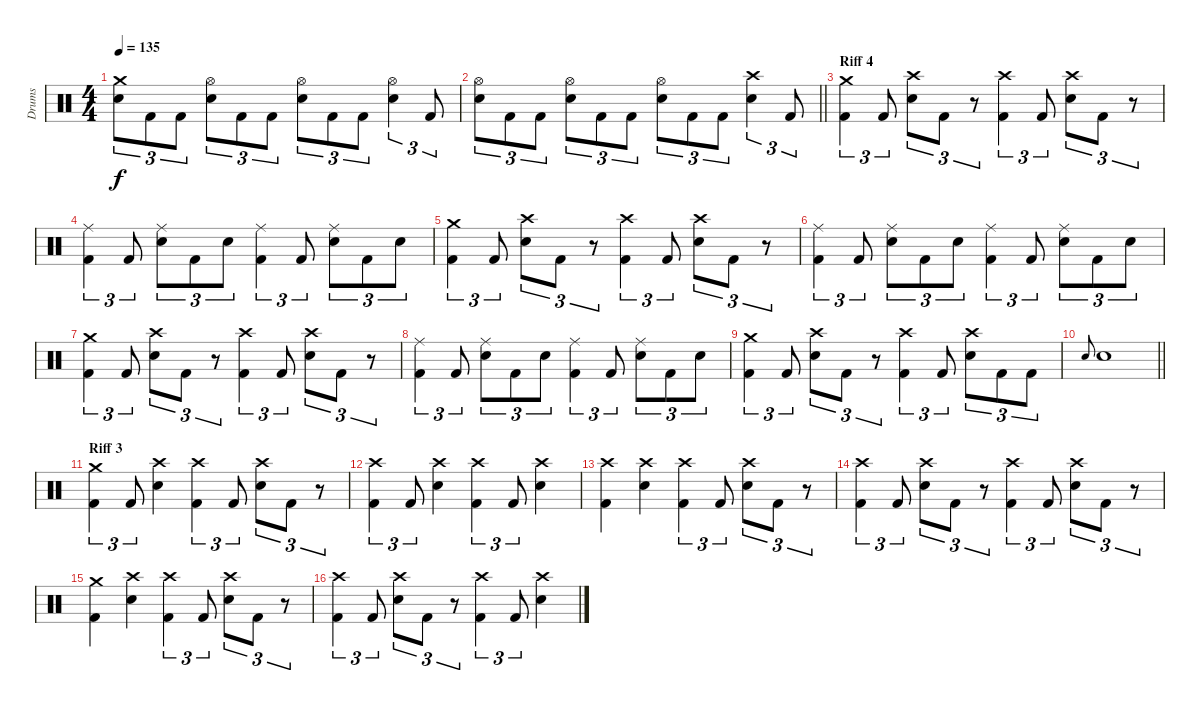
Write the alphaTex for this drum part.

\track ("Drums" "Drums") {instrument percussion}
\staff {score}
\articulation defaults
\ts (4 4)
\tempo 135
\clef neutral
\ks c
("Crash medium (hit)" "Electric Snare (hit)").8{tu (3 2) dy f} "Kick (hit) 2".8{tu (3 2)} "Kick (hit) 2".8{tu (3 2)} ("Hi-Hat (open)" "Electric Snare (hit)").8{tu (3 2)} "Kick (hit) 2".8{tu (3 2)} "Kick (hit) 2".8{tu (3 2)} ("Hi-Hat (open)" "Electric Snare (hit)").8{tu (3 2)} "Kick (hit) 2".8{tu (3 2)} "Kick (hit) 2".8{tu (3 2)} ("Electric Snare (hit)" "Hi-Hat (open)").4{tu (3 2)} "Kick (hit) 2".8{tu (3 2)} |
\barLineRight lightlight
("Hi-Hat (open)" "Electric Snare (hit)").8{tu (3 2)} "Kick (hit) 2".8{tu (3 2)} "Kick (hit) 2".8{tu (3 2)} ("Hi-Hat (open)" "Electric Snare (hit)").8{tu (3 2)} "Kick (hit) 2".8{tu (3 2)} "Kick (hit) 2".8{tu (3 2)} ("Hi-Hat (open)" "Electric Snare (hit)").8{tu (3 2)} "Kick (hit) 2".8{tu (3 2)} "Kick (hit) 2".8{tu (3 2)} ("Electric Snare (hit)" "Crash high (hit)").4{tu (3 2)} "Kick (hit) 2".8{tu (3 2)} |
\section ("" "Riff 4")
("Crash medium (hit)" "Kick (hit) 2").4{tu (3 2)} "Kick (hit) 2".8{tu (3 2)} ("Electric Snare (hit)" "Crash high (hit)").8{tu (3 2)} "Kick (hit) 2".8{tu (3 2)} r.8{tu (3 2)} ("Crash high (hit)" "Kick (hit) 2").4{tu (3 2)} "Kick (hit) 2".8{tu (3 2)} ("Electric Snare (hit)" "Crash high (hit)").8{tu (3 2)} "Kick (hit) 2".8{tu (3 2)} r.8{tu (3 2)} |
("Ride (middle)" "Kick (hit) 2").4{tu (3 2)} "Kick (hit) 2".8{tu (3 2)} ("Electric Snare (hit)" "Ride (middle)").8{tu (3 2)} "Kick (hit) 2".8{tu (3 2)} "Electric Snare (hit)".8{tu (3 2)} ("Ride (middle)" "Kick (hit) 2").4{tu (3 2)} "Kick (hit) 2".8{tu (3 2)} ("Electric Snare (hit)" "Ride (middle)").8{tu (3 2)} "Kick (hit) 2".8{tu (3 2)} "Electric Snare (hit)".8{tu (3 2)} |
("Crash medium (hit)" "Kick (hit) 2").4{tu (3 2)} "Kick (hit) 2".8{tu (3 2)} ("Electric Snare (hit)" "Crash high (hit)").8{tu (3 2)} "Kick (hit) 2".8{tu (3 2)} r.8{tu (3 2)} ("Crash high (hit)" "Kick (hit) 2").4{tu (3 2)} "Kick (hit) 2".8{tu (3 2)} ("Electric Snare (hit)" "Crash high (hit)").8{tu (3 2)} "Kick (hit) 2".8{tu (3 2)} r.8{tu (3 2)} |
("Ride (middle)" "Kick (hit) 2").4{tu (3 2)} "Kick (hit) 2".8{tu (3 2)} ("Electric Snare (hit)" "Ride (middle)").8{tu (3 2)} "Kick (hit) 2".8{tu (3 2)} "Electric Snare (hit)".8{tu (3 2)} ("Ride (middle)" "Kick (hit) 2").4{tu (3 2)} "Kick (hit) 2".8{tu (3 2)} ("Electric Snare (hit)" "Ride (middle)").8{tu (3 2)} "Kick (hit) 2".8{tu (3 2)} "Electric Snare (hit)".8{tu (3 2)} |
("Crash medium (hit)" "Kick (hit) 2").4{tu (3 2)} "Kick (hit) 2".8{tu (3 2)} ("Electric Snare (hit)" "Crash high (hit)").8{tu (3 2)} "Kick (hit) 2".8{tu (3 2)} r.8{tu (3 2)} ("Crash high (hit)" "Kick (hit) 2").4{tu (3 2)} "Kick (hit) 2".8{tu (3 2)} ("Electric Snare (hit)" "Crash high (hit)").8{tu (3 2)} "Kick (hit) 2".8{tu (3 2)} r.8{tu (3 2)} |
("Ride (middle)" "Kick (hit) 2").4{tu (3 2)} "Kick (hit) 2".8{tu (3 2)} ("Electric Snare (hit)" "Ride (middle)").8{tu (3 2)} "Kick (hit) 2".8{tu (3 2)} "Electric Snare (hit)".8{tu (3 2)} ("Ride (middle)" "Kick (hit) 2").4{tu (3 2)} "Kick (hit) 2".8{tu (3 2)} ("Electric Snare (hit)" "Ride (middle)").8{tu (3 2)} "Kick (hit) 2".8{tu (3 2)} "Electric Snare (hit)".8{tu (3 2)} |
("Crash medium (hit)" "Kick (hit) 2").4{tu (3 2)} "Kick (hit) 2".8{tu (3 2)} ("Electric Snare (hit)" "Crash high (hit)").8{tu (3 2)} "Kick (hit) 2".8{tu (3 2)} r.8{tu (3 2)} ("Crash high (hit)" "Kick (hit) 2").4{tu (3 2)} "Kick (hit) 2".8{tu (3 2)} ("Electric Snare (hit)" "Crash high (hit)").8{tu (3 2)} "Kick (hit) 2".8{tu (3 2)} "Kick (hit) 2".8{tu (3 2)} |
\barLineRight lightlight "Electric Snare (hit)".8{gr onbeat} "Electric Snare (hit)".1
|
\section ("" "Riff 3")
("Crash medium (hit)" "Kick (hit) 2").4{tu (3 2)} "Kick (hit) 2".8{tu (3 2)} ("Crash high (hit)" "Electric Snare (hit)").4 ("Crash high (hit)" "Kick (hit) 2").4{tu (3 2)} "Kick (hit) 2".8{tu (3 2)} ("Crash high (hit)" "Electric Snare (hit)").8{tu (3 2)} "Kick (hit) 2".8{tu (3 2)} r.8{tu (3 2)} |
("Crash high (hit)" "Kick (hit) 2").4{tu (3 2)} "Kick (hit) 2".8{tu (3 2)} ("Crash high (hit)" "Electric Snare (hit)").4 ("Crash high (hit)" "Kick (hit) 2").4{tu (3 2)} "Kick (hit) 2".8{tu (3 2)} ("Crash high (hit)" "Electric Snare (hit)").4 |
("Kick (hit) 2" "Crash high (hit)").4 ("Electric Snare (hit)" "Crash high (hit)").4 ("Crash high (hit)" "Kick (hit) 2").4{tu (3 2)} "Kick (hit) 2".8{tu (3 2)} ("Crash high (hit)" "Electric Snare (hit)").8{tu (3 2)} "Kick (hit) 2".8{tu (3 2)} r.8{tu (3 2)} |
("Crash high (hit)" "Kick (hit) 2").4{tu (3 2)} "Kick (hit) 2".8{tu (3 2)} ("Crash high (hit)" "Electric Snare (hit)").8{tu (3 2)} "Kick (hit) 2".8{tu (3 2)} r.8{tu (3 2)} ("Crash high (hit)" "Kick (hit) 2").4{tu (3 2)} "Kick (hit) 2".8{tu (3 2)} ("Crash high (hit)" "Electric Snare (hit)").8{tu (3 2)} "Kick (hit) 2".8{tu (3 2)} r.8{tu (3 2)} |
("Kick (hit) 2" "Crash medium (hit)").4 ("Electric Snare (hit)" "Crash high (hit)").4 ("Crash high (hit)" "Kick (hit) 2").4{tu (3 2)} "Kick (hit) 2".8{tu (3 2)} ("Crash high (hit)" "Electric Snare (hit)").8{tu (3 2)} "Kick (hit) 2".8{tu (3 2)} r.8{tu (3 2)} |
("Crash high (hit)" "Kick (hit) 2").4{tu (3 2)} "Kick (hit) 2".8{tu (3 2)} ("Crash high (hit)" "Electric Snare (hit)").8{tu (3 2)} "Kick (hit) 2".8{tu (3 2)} r.8{tu (3 2)} ("Crash high (hit)" "Kick (hit) 2").4{tu (3 2)} "Kick (hit) 2".8{tu (3 2)} ("Crash high (hit)" "Electric Snare (hit)").4
